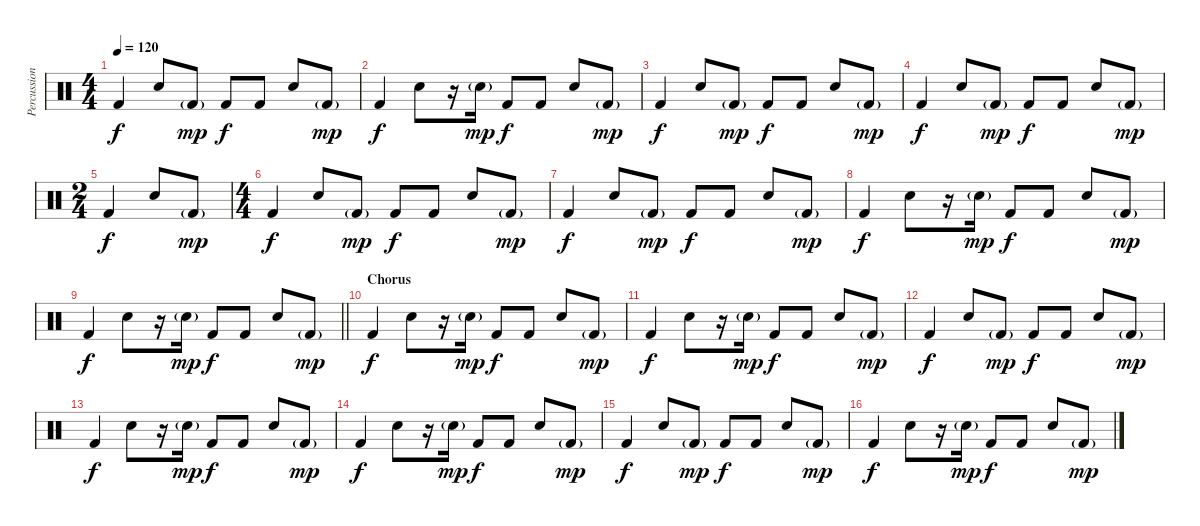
\track ("Percussion" "Percussion") {instrument percussion}
\staff {score}
\articulation defaults
\ts (4 4)
\tempo 120
\clef neutral
\ks c "Kick (hit) 2".4{dy f} "Snare (hit) 2".8 "Kick (hit) 2"{g}.8{dy mp} "Kick (hit) 2".8{dy f} "Kick (hit) 2".8 "Snare (hit) 2".8 "Kick (hit) 2"{g}.8{dy mp}
|
"Kick (hit) 2".4{dy f} "Snare (hit) 2".8 r.16 "Snare (hit) 2"{g}.16{dy mp} "Kick (hit) 2".8{dy f} "Kick (hit) 2".8 "Snare (hit) 2".8 "Kick (hit) 2"{g}.8{dy mp} |
"Kick (hit) 2".4{dy f} "Snare (hit) 2".8 "Kick (hit) 2"{g}.8{dy mp} "Kick (hit) 2".8{dy f} "Kick (hit) 2".8 "Snare (hit) 2".8 "Kick (hit) 2"{g}.8{dy mp} |
"Kick (hit) 2".4{dy f} "Snare (hit) 2".8 "Kick (hit) 2"{g}.8{dy mp} "Kick (hit) 2".8{dy f} "Kick (hit) 2".8 "Snare (hit) 2".8 "Kick (hit) 2"{g}.8{dy mp} |
\ts (2 4)
"Kick (hit) 2".4{dy f} "Snare (hit) 2".8 "Kick (hit) 2"{g}.8{dy mp} |
\ts (4 4)
"Kick (hit) 2".4{dy f} "Snare (hit) 2".8 "Kick (hit) 2"{g}.8{dy mp} "Kick (hit) 2".8{dy f} "Kick (hit) 2".8 "Snare (hit) 2".8 "Kick (hit) 2"{g}.8{dy mp} |
"Kick (hit) 2".4{dy f} "Snare (hit) 2".8 "Kick (hit) 2"{g}.8{dy mp} "Kick (hit) 2".8{dy f} "Kick (hit) 2".8 "Snare (hit) 2".8 "Kick (hit) 2"{g}.8{dy mp} |
"Kick (hit) 2".4{dy f} "Snare (hit) 2".8 r.16 "Snare (hit) 2"{g}.16{dy mp} "Kick (hit) 2".8{dy f} "Kick (hit) 2".8 "Snare (hit) 2".8 "Kick (hit) 2"{g}.8{dy mp} |
\barLineRight lightlight "Kick (hit) 2".4{dy f} "Snare (hit) 2".8
r.16 "Snare (hit) 2"{g}.16{dy mp} "Kick (hit) 2".8{dy f} "Kick (hit) 2".8 "Snare (hit) 2".8 "Kick (hit) 2"{g}.8{dy mp} |
\section ("" "Chorus")
"Kick (hit) 2".4{dy f} "Snare (hit) 2".8 r.16 "Snare (hit) 2"{g}.16{dy mp} "Kick (hit) 2".8{dy f} "Kick (hit) 2".8 "Snare (hit) 2".8 "Kick (hit) 2"{g}.8{dy mp} |
"Kick (hit) 2".4{dy f} "Snare (hit) 2".8 r.16 "Snare (hit) 2"{g}.16{dy mp} "Kick (hit) 2".8{dy f} "Kick (hit) 2".8 "Snare (hit) 2".8 "Kick (hit) 2"{g}.8{dy mp} |
"Kick (hit) 2".4{dy f} "Snare (hit) 2".8 "Kick (hit) 2"{g}.8{dy mp} "Kick (hit) 2".8{dy f} "Kick (hit) 2".8 "Snare (hit) 2".8 "Kick (hit) 2"{g}.8{dy mp} |
"Kick (hit) 2".4{dy f} "Snare (hit) 2".8 r.16 "Snare (hit) 2"{g}.16{dy mp} "Kick (hit) 2".8{dy f} "Kick (hit) 2".8 "Snare (hit) 2".8 "Kick (hit) 2"{g}.8{dy mp} |
"Kick (hit) 2".4{dy f} "Snare (hit) 2".8 r.16 "Snare (hit) 2"{g}.16{dy mp} "Kick (hit) 2".8{dy f} "Kick (hit) 2".8 "Snare (hit) 2".8 "Kick (hit) 2"{g}.8{dy mp} |
"Kick (hit) 2".4{dy f} "Snare (hit) 2".8 "Kick (hit) 2"{g}.8{dy mp} "Kick (hit) 2".8{dy f} "Kick (hit) 2".8 "Snare (hit) 2".8 "Kick (hit) 2"{g}.8{dy mp} |
"Kick (hit) 2".4{dy f} "Snare (hit) 2".8 r.16 "Snare (hit) 2"{g}.16{dy mp} "Kick (hit) 2".8{dy f} "Kick (hit) 2".8 "Snare (hit) 2".8 "Kick (hit) 2"{g}.8{dy mp}
